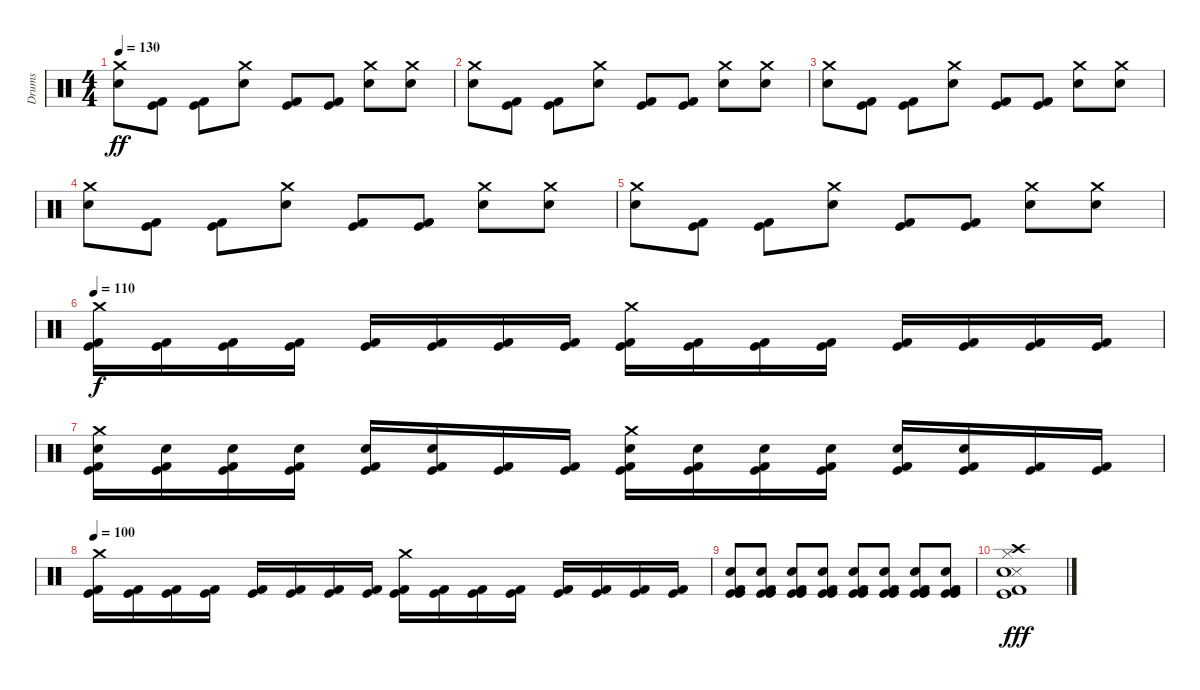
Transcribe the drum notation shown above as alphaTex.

\track ("Drums" "Drums") {instrument percussion}
\staff {score}
\articulation defaults
\ts (4 4)
\tempo 130
\clef neutral
\ks c
("Crash medium (hit)" "Snare (hit) 2").8{dy ff} ("Kick (hit) 2" "Kick (hit)").8 ("Kick (hit) 2" "Kick (hit)").8 ("Crash medium (hit)" "Snare (hit) 2").8 ("Kick (hit) 2" "Kick (hit)").8 ("Kick (hit) 2" "Kick (hit)").8 ("Crash medium (hit)" "Snare (hit) 2").8 ("Crash medium (hit)" "Snare (hit) 2").8 |
("Crash medium (hit)" "Snare (hit) 2").8 ("Kick (hit) 2" "Kick (hit)").8 ("Kick (hit) 2" "Kick (hit)").8 ("Crash medium (hit)" "Snare (hit) 2").8 ("Kick (hit) 2" "Kick (hit)").8 ("Kick (hit) 2" "Kick (hit)").8 ("Crash medium (hit)" "Snare (hit) 2").8 ("Crash medium (hit)" "Snare (hit) 2").8 |
("Crash medium (hit)" "Snare (hit) 2").8 ("Kick (hit) 2" "Kick (hit)").8 ("Kick (hit) 2" "Kick (hit)").8 ("Crash medium (hit)" "Snare (hit) 2").8 ("Kick (hit) 2" "Kick (hit)").8 ("Kick (hit) 2" "Kick (hit)").8 ("Crash medium (hit)" "Snare (hit) 2").8 ("Crash medium (hit)" "Snare (hit) 2").8 |
("Crash medium (hit)" "Snare (hit) 2").8 ("Kick (hit) 2" "Kick (hit)").8 ("Kick (hit) 2" "Kick (hit)").8 ("Crash medium (hit)" "Snare (hit) 2").8 ("Kick (hit) 2" "Kick (hit)").8 ("Kick (hit) 2" "Kick (hit)").8 ("Crash medium (hit)" "Snare (hit) 2").8 ("Crash medium (hit)" "Snare (hit) 2").8 |
("Crash medium (hit)" "Snare (hit) 2").8 ("Kick (hit) 2" "Kick (hit)").8 ("Kick (hit) 2" "Kick (hit)").8 ("Crash medium (hit)" "Snare (hit) 2").8 ("Kick (hit) 2" "Kick (hit)").8 ("Kick (hit) 2" "Kick (hit)").8 ("Crash medium (hit)" "Snare (hit) 2").8 ("Crash medium (hit)" "Snare (hit) 2").8 |
\tempo 110
("Crash medium (hit)" "Kick (hit)" "Kick (hit) 2").16{dy f} ("Kick (hit)" "Kick (hit) 2").16 ("Kick (hit)" "Kick (hit) 2").16 ("Kick (hit)" "Kick (hit) 2").16 ("Kick (hit)" "Kick (hit) 2").16 ("Kick (hit)" "Kick (hit) 2").16 ("Kick (hit)" "Kick (hit) 2").16 ("Kick (hit)" "Kick (hit) 2").16 ("Crash medium (hit)" "Kick (hit)" "Kick (hit) 2").16 ("Kick (hit)" "Kick (hit) 2").16 ("Kick (hit)" "Kick (hit) 2").16 ("Kick (hit)" "Kick (hit) 2").16 ("Kick (hit)" "Kick (hit) 2").16 ("Kick (hit)" "Kick (hit) 2").16 ("Kick (hit)" "Kick (hit) 2").16 ("Kick (hit)" "Kick (hit) 2").16 |
("Crash medium (hit)" "Snare (hit) 2" "Kick (hit)" "Kick (hit) 2").16 ("Snare (hit) 2" "Kick (hit)" "Kick (hit) 2").16 ("Snare (hit) 2" "Kick (hit)" "Kick (hit) 2").16 ("Snare (hit) 2" "Kick (hit)" "Kick (hit) 2").16 ("Snare (hit) 2" "Kick (hit)" "Kick (hit) 2").16 ("Snare (hit) 2" "Kick (hit)" "Kick (hit) 2").16 ("Kick (hit)" "Kick (hit) 2").16 ("Kick (hit)" "Kick (hit) 2").16 ("Crash medium (hit)" "Snare (hit) 2" "Kick (hit)" "Kick (hit) 2").16 ("Snare (hit) 2" "Kick (hit)" "Kick (hit) 2").16 ("Snare (hit) 2" "Kick (hit)" "Kick (hit) 2").16 ("Snare (hit) 2" "Kick (hit)" "Kick (hit) 2").16 ("Snare (hit) 2" "Kick (hit)" "Kick (hit) 2").16 ("Snare (hit) 2" "Kick (hit)" "Kick (hit) 2").16 ("Kick (hit)" "Kick (hit) 2").16 ("Kick (hit)" "Kick (hit) 2").16 |
\tempo 100
("Crash medium (hit)" "Kick (hit)" "Kick (hit) 2").16 ("Kick (hit)" "Kick (hit) 2").16 ("Kick (hit)" "Kick (hit) 2").16 ("Kick (hit)" "Kick (hit) 2").16 ("Kick (hit)" "Kick (hit) 2").16 ("Kick (hit)" "Kick (hit) 2").16 ("Kick (hit)" "Kick (hit) 2").16 ("Kick (hit)" "Kick (hit) 2").16 ("Crash medium (hit)" "Kick (hit)" "Kick (hit) 2").16 ("Kick (hit)" "Kick (hit) 2").16 ("Kick (hit)" "Kick (hit) 2").16 ("Kick (hit)" "Kick (hit) 2").16 ("Kick (hit)" "Kick (hit) 2").16 ("Kick (hit)" "Kick (hit) 2").16 ("Kick (hit)" "Kick (hit) 2").16 ("Kick (hit)" "Kick (hit) 2").16 |
("Snare (hit) 2" "Kick (hit)" "Kick (hit)" "Kick (hit) 2").8 ("Snare (hit) 2" "Kick (hit)" "Kick (hit)" "Kick (hit) 2").8 ("Snare (hit) 2" "Kick (hit)" "Kick (hit)" "Kick (hit) 2").8 ("Snare (hit) 2" "Kick (hit)" "Kick (hit)" "Kick (hit) 2").8 ("Snare (hit) 2" "Kick (hit)" "Kick (hit)" "Kick (hit) 2").8 ("Snare (hit) 2" "Kick (hit)" "Kick (hit)" "Kick (hit) 2").8 ("Snare (hit) 2" "Kick (hit)" "Kick (hit)" "Kick (hit) 2").8 ("Snare (hit) 2" "Kick (hit)" "Kick (hit)" "Kick (hit) 2").8 |
("Crash high (hit)" "Hi-Hat (closed)" "Snare (side stick) 3" "Snare (hit) 2" "Kick (hit) 2" "Kick (hit)").1{dy fff}
